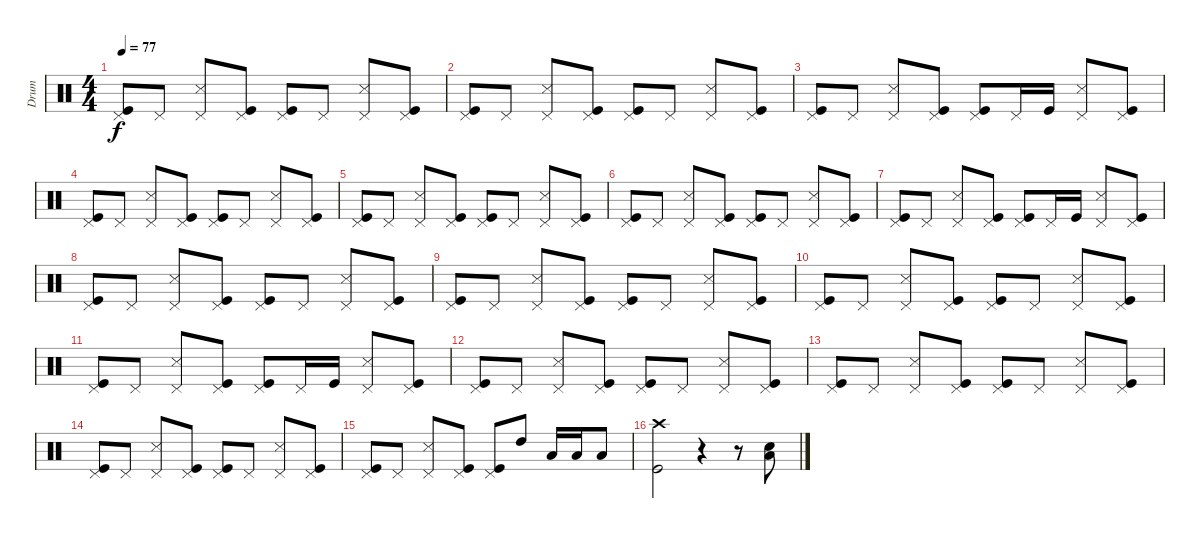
\track ("Drum" "Drum") {instrument percussion}
\staff {score}
\articulation defaults
\ts (4 4)
\tempo 77
\clef neutral
\ks c
("Pedal Hi-Hat (hit)" "Kick (hit)").8{dy f} "Pedal Hi-Hat (hit)".8 ("Pedal Hi-Hat (hit)" "Snare (side stick) 3").8 ("Pedal Hi-Hat (hit)" "Kick (hit)").8 ("Pedal Hi-Hat (hit)" "Kick (hit)").8 "Pedal Hi-Hat (hit)".8 ("Pedal Hi-Hat (hit)" "Snare (side stick) 3").8 ("Pedal Hi-Hat (hit)" "Kick (hit)").8 |
("Pedal Hi-Hat (hit)" "Kick (hit)").8 "Pedal Hi-Hat (hit)".8 ("Pedal Hi-Hat (hit)" "Snare (side stick) 3").8 ("Pedal Hi-Hat (hit)" "Kick (hit)").8 ("Pedal Hi-Hat (hit)" "Kick (hit)").8 "Pedal Hi-Hat (hit)".8 ("Pedal Hi-Hat (hit)" "Snare (side stick) 3").8 ("Pedal Hi-Hat (hit)" "Kick (hit)").8 |
("Pedal Hi-Hat (hit)" "Kick (hit)").8 "Pedal Hi-Hat (hit)".8 ("Pedal Hi-Hat (hit)" "Snare (side stick) 3").8 ("Pedal Hi-Hat (hit)" "Kick (hit)").8 ("Pedal Hi-Hat (hit)" "Kick (hit)").8 "Pedal Hi-Hat (hit)".16 "Kick (hit)".16 ("Pedal Hi-Hat (hit)" "Snare (side stick) 3").8 ("Pedal Hi-Hat (hit)" "Kick (hit)").8 |
("Pedal Hi-Hat (hit)" "Kick (hit)").8 "Pedal Hi-Hat (hit)".8 ("Pedal Hi-Hat (hit)" "Snare (side stick) 3").8 ("Pedal Hi-Hat (hit)" "Kick (hit)").8 ("Pedal Hi-Hat (hit)" "Kick (hit)").8 "Pedal Hi-Hat (hit)".8 ("Pedal Hi-Hat (hit)" "Snare (side stick) 3").8 ("Pedal Hi-Hat (hit)" "Kick (hit)").8 |
("Pedal Hi-Hat (hit)" "Kick (hit)").8 "Pedal Hi-Hat (hit)".8 ("Pedal Hi-Hat (hit)" "Snare (side stick) 3").8 ("Pedal Hi-Hat (hit)" "Kick (hit)").8 ("Pedal Hi-Hat (hit)" "Kick (hit)").8 "Pedal Hi-Hat (hit)".8 ("Pedal Hi-Hat (hit)" "Snare (side stick) 3").8 ("Pedal Hi-Hat (hit)" "Kick (hit)").8 |
("Pedal Hi-Hat (hit)" "Kick (hit)").8 "Pedal Hi-Hat (hit)".8 ("Pedal Hi-Hat (hit)" "Snare (side stick) 3").8 ("Pedal Hi-Hat (hit)" "Kick (hit)").8 ("Pedal Hi-Hat (hit)" "Kick (hit)").8 "Pedal Hi-Hat (hit)".8 ("Pedal Hi-Hat (hit)" "Snare (side stick) 3").8 ("Pedal Hi-Hat (hit)" "Kick (hit)").8 |
("Pedal Hi-Hat (hit)" "Kick (hit)").8 "Pedal Hi-Hat (hit)".8 ("Pedal Hi-Hat (hit)" "Snare (side stick) 3").8 ("Pedal Hi-Hat (hit)" "Kick (hit)").8 ("Pedal Hi-Hat (hit)" "Kick (hit)").8 "Pedal Hi-Hat (hit)".16 "Kick (hit)".16 ("Pedal Hi-Hat (hit)" "Snare (side stick) 3").8 ("Pedal Hi-Hat (hit)" "Kick (hit)").8 |
("Pedal Hi-Hat (hit)" "Kick (hit)").8 "Pedal Hi-Hat (hit)".8 ("Pedal Hi-Hat (hit)" "Snare (side stick) 3").8 ("Pedal Hi-Hat (hit)" "Kick (hit)").8 ("Pedal Hi-Hat (hit)" "Kick (hit)").8 "Pedal Hi-Hat (hit)".8 ("Pedal Hi-Hat (hit)" "Snare (side stick) 3").8 ("Pedal Hi-Hat (hit)" "Kick (hit)").8 |
("Pedal Hi-Hat (hit)" "Kick (hit)").8 "Pedal Hi-Hat (hit)".8 ("Pedal Hi-Hat (hit)" "Snare (side stick) 3").8 ("Pedal Hi-Hat (hit)" "Kick (hit)").8 ("Pedal Hi-Hat (hit)" "Kick (hit)").8 "Pedal Hi-Hat (hit)".8 ("Pedal Hi-Hat (hit)" "Snare (side stick) 3").8 ("Pedal Hi-Hat (hit)" "Kick (hit)").8 |
("Pedal Hi-Hat (hit)" "Kick (hit)").8 "Pedal Hi-Hat (hit)".8 ("Pedal Hi-Hat (hit)" "Snare (side stick) 3").8 ("Pedal Hi-Hat (hit)" "Kick (hit)").8 ("Pedal Hi-Hat (hit)" "Kick (hit)").8 "Pedal Hi-Hat (hit)".8 ("Pedal Hi-Hat (hit)" "Snare (side stick) 3").8 ("Pedal Hi-Hat (hit)" "Kick (hit)").8 |
("Pedal Hi-Hat (hit)" "Kick (hit)").8 "Pedal Hi-Hat (hit)".8 ("Pedal Hi-Hat (hit)" "Snare (side stick) 3").8 ("Pedal Hi-Hat (hit)" "Kick (hit)").8 ("Pedal Hi-Hat (hit)" "Kick (hit)").8 "Pedal Hi-Hat (hit)".16 "Kick (hit)".16 ("Pedal Hi-Hat (hit)" "Snare (side stick) 3").8 ("Pedal Hi-Hat (hit)" "Kick (hit)").8 |
("Pedal Hi-Hat (hit)" "Kick (hit)").8 "Pedal Hi-Hat (hit)".8 ("Pedal Hi-Hat (hit)" "Snare (side stick) 3").8 ("Pedal Hi-Hat (hit)" "Kick (hit)").8 ("Pedal Hi-Hat (hit)" "Kick (hit)").8 "Pedal Hi-Hat (hit)".8 ("Pedal Hi-Hat (hit)" "Snare (side stick) 3").8 ("Pedal Hi-Hat (hit)" "Kick (hit)").8 |
("Pedal Hi-Hat (hit)" "Kick (hit)").8 "Pedal Hi-Hat (hit)".8 ("Pedal Hi-Hat (hit)" "Snare (side stick) 3").8 ("Pedal Hi-Hat (hit)" "Kick (hit)").8 ("Pedal Hi-Hat (hit)" "Kick (hit)").8 "Pedal Hi-Hat (hit)".8 ("Pedal Hi-Hat (hit)" "Snare (side stick) 3").8 ("Pedal Hi-Hat (hit)" "Kick (hit)").8 |
("Pedal Hi-Hat (hit)" "Kick (hit)").8 "Pedal Hi-Hat (hit)".8 ("Pedal Hi-Hat (hit)" "Snare (side stick) 3").8 ("Pedal Hi-Hat (hit)" "Kick (hit)").8 ("Pedal Hi-Hat (hit)" "Kick (hit)").8 "Pedal Hi-Hat (hit)".8 ("Pedal Hi-Hat (hit)" "Snare (side stick) 3").8 ("Pedal Hi-Hat (hit)" "Kick (hit)").8 |
("Pedal Hi-Hat (hit)" "Kick (hit)").8 "Pedal Hi-Hat (hit)".8 ("Pedal Hi-Hat (hit)" "Snare (side stick) 3").8 ("Pedal Hi-Hat (hit)" "Kick (hit)").8 ("Pedal Hi-Hat (hit)" "Kick (hit)").8 "High Tom (hit)".8 "Low Tom (hit)".16 "Low Tom (hit)".16 "Low Tom (hit)".8 |
("Crash high (hit)" "Kick (hit)").2 r.4 r.8 ("Low Tom (hit)" "Snare (hit) 2").8
